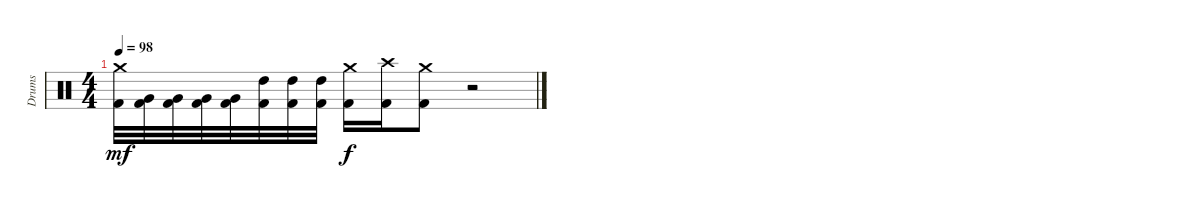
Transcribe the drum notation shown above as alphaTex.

\track ("Drums" "Drums") {instrument percussion}
\staff {score}
\articulation defaults
\ts (4 4)
\tempo 98
\clef neutral
\ks c
("Crash medium (hit)" "Kick (hit) 2").32{dy mf} ("Very Low Tom (hit)" "Kick (hit) 2").32 ("Very Low Tom (hit)" "Kick (hit) 2").32 ("Very Low Tom (hit)" "Kick (hit) 2").32 ("Very Low Tom (hit)" "Kick (hit) 2").32 ("High Tom (hit)" "Kick (hit) 2").32 ("High Tom (hit)" "Kick (hit) 2").32 ("High Tom (hit)" "Kick (hit) 2").32 ("Crash medium (hit)" "Kick (hit) 2").16{dy f} ("Crash high (hit)" "Kick (hit) 2").16 ("Crash medium (hit)" "Kick (hit) 2").8 r.2
